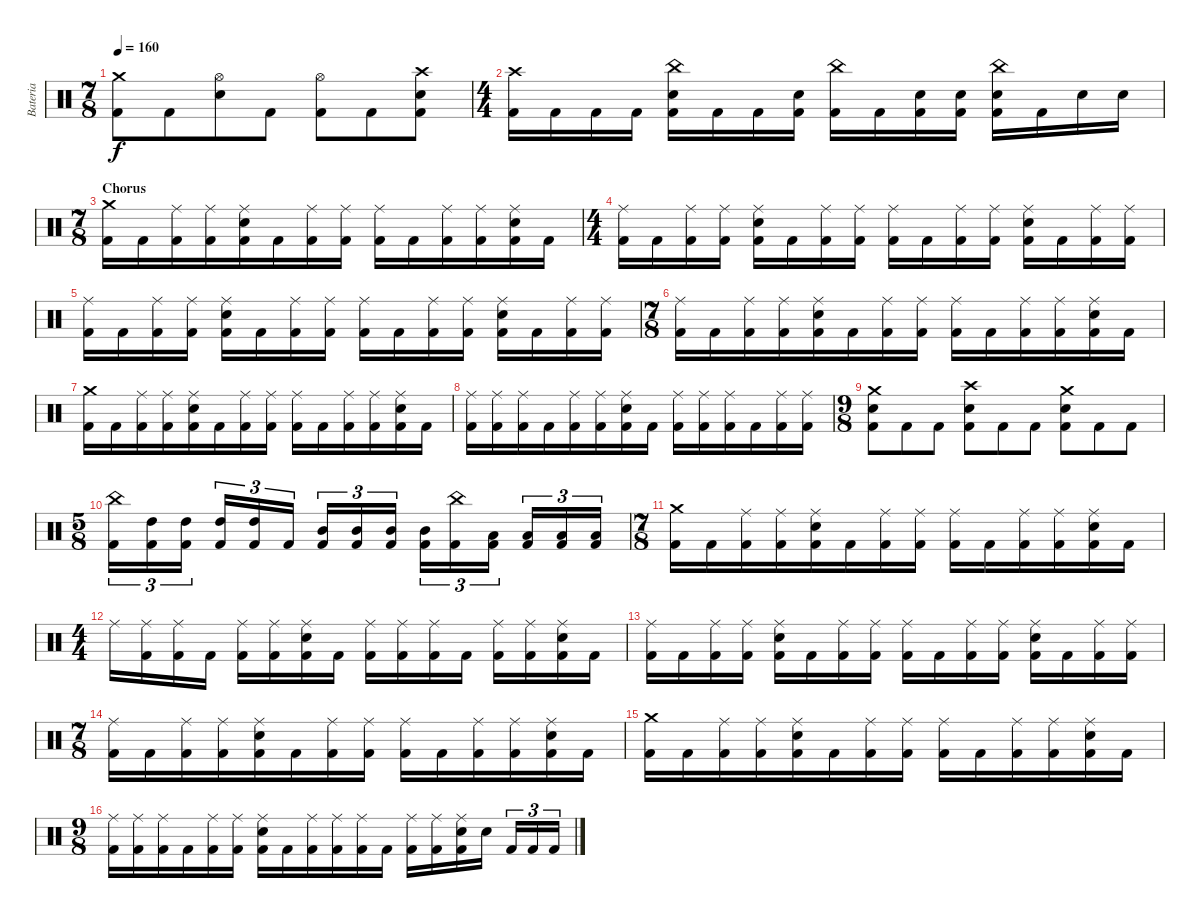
\track ("Bateria" "Bateria") {instrument percussion}
\staff {score}
\articulation defaults
\ts (7 8)
\tempo 160
\clef neutral
\ks c
("Crash medium (hit)" "Kick (hit) 2").8{dy f} "Kick (hit) 2".8 ("Hi-Hat (open)" "Electric Snare (hit)").8 "Kick (hit) 2".8 ("Hi-Hat (open)" "Kick (hit) 2").8 "Kick (hit) 2".8 ("Crash high (hit)" "Electric Snare (hit)" "Kick (hit) 2").8 |
\ts (4 4)
("Crash high (hit)" "Kick (hit) 2").16 "Kick (hit) 2".16 "Kick (hit) 2".16 "Kick (hit) 2".16 ("China (hit)" "Electric Snare (hit)" "Kick (hit) 2").16 "Kick (hit) 2".16 "Kick (hit) 2".16 ("Electric Snare (hit)" "Kick (hit) 2").16 ("China (hit)" "Kick (hit) 2").16 "Kick (hit) 2".16 ("Electric Snare (hit)" "Kick (hit) 2").16 ("Electric Snare (hit)" "Kick (hit) 2").16 ("China (hit)" "Electric Snare (hit)" "Kick (hit) 2").16 "Kick (hit) 2".16 "Electric Snare (hit)".16 "Electric Snare (hit)".16 |
\ts (7 8)
\section ("" "Chorus")
("Crash medium (hit)" "Kick (hit) 2").16 "Kick (hit) 2".16 ("Ride (middle)" "Kick (hit) 2").16 ("Ride (middle)" "Kick (hit) 2").16 ("Ride (middle)" "Electric Snare (hit)" "Kick (hit) 2").16 "Kick (hit) 2".16 ("Ride (middle)" "Kick (hit) 2").16 ("Ride (middle)" "Kick (hit) 2").16 ("Ride (middle)" "Kick (hit) 2").16 "Kick (hit) 2".16 ("Ride (middle)" "Kick (hit) 2").16 ("Ride (middle)" "Kick (hit) 2").16 ("Ride (middle)" "Electric Snare (hit)" "Kick (hit) 2").16 "Kick (hit) 2".16 |
\ts (4 4)
("Ride (middle)" "Kick (hit) 2").16 "Kick (hit) 2".16 ("Ride (middle)" "Kick (hit) 2").16 ("Ride (middle)" "Kick (hit) 2").16 ("Ride (middle)" "Electric Snare (hit)" "Kick (hit) 2").16 "Kick (hit) 2".16 ("Ride (middle)" "Kick (hit) 2").16 ("Ride (middle)" "Kick (hit) 2").16 ("Ride (middle)" "Kick (hit) 2").16 "Kick (hit) 2".16 ("Ride (middle)" "Kick (hit) 2").16 ("Ride (middle)" "Kick (hit) 2").16 ("Ride (middle)" "Electric Snare (hit)" "Kick (hit) 2").16 "Kick (hit) 2".16 ("Ride (middle)" "Kick (hit) 2").16 ("Ride (middle)" "Kick (hit) 2").16 |
("Ride (middle)" "Kick (hit) 2").16 "Kick (hit) 2".16 ("Ride (middle)" "Kick (hit) 2").16 ("Ride (middle)" "Kick (hit) 2").16 ("Ride (middle)" "Electric Snare (hit)" "Kick (hit) 2").16 "Kick (hit) 2".16 ("Ride (middle)" "Kick (hit) 2").16 ("Ride (middle)" "Kick (hit) 2").16 ("Ride (middle)" "Kick (hit) 2").16 "Kick (hit) 2".16 ("Ride (middle)" "Kick (hit) 2").16 ("Ride (middle)" "Kick (hit) 2").16 ("Ride (middle)" "Electric Snare (hit)" "Kick (hit) 2").16 "Kick (hit) 2".16 ("Ride (middle)" "Kick (hit) 2").16 ("Ride (middle)" "Kick (hit) 2").16 |
\ts (7 8)
("Ride (middle)" "Kick (hit) 2").16 "Kick (hit) 2".16 ("Ride (middle)" "Kick (hit) 2").16 ("Ride (middle)" "Kick (hit) 2").16 ("Ride (middle)" "Electric Snare (hit)" "Kick (hit) 2").16 "Kick (hit) 2".16 ("Ride (middle)" "Kick (hit) 2").16 ("Ride (middle)" "Kick (hit) 2").16 ("Ride (middle)" "Kick (hit) 2").16 "Kick (hit) 2".16 ("Ride (middle)" "Kick (hit) 2").16 ("Ride (middle)" "Kick (hit) 2").16 ("Ride (middle)" "Electric Snare (hit)" "Kick (hit) 2").16 "Kick (hit) 2".16 |
("Crash medium (hit)" "Kick (hit) 2").16 "Kick (hit) 2".16 ("Ride (middle)" "Kick (hit) 2").16 ("Ride (middle)" "Kick (hit) 2").16 ("Ride (middle)" "Electric Snare (hit)" "Kick (hit) 2").16 "Kick (hit) 2".16 ("Ride (middle)" "Kick (hit) 2").16 ("Ride (middle)" "Kick (hit) 2").16 ("Ride (middle)" "Kick (hit) 2").16 "Kick (hit) 2".16 ("Ride (middle)" "Kick (hit) 2").16 ("Ride (middle)" "Kick (hit) 2").16 ("Ride (middle)" "Electric Snare (hit)" "Kick (hit) 2").16 "Kick (hit) 2".16 |
("Ride (middle)" "Kick (hit) 2").16 ("Ride (middle)" "Kick (hit) 2").16 ("Ride (middle)" "Kick (hit) 2").16 "Kick (hit) 2".16 ("Ride (middle)" "Kick (hit) 2").16 ("Ride (middle)" "Kick (hit) 2").16 ("Ride (middle)" "Electric Snare (hit)" "Kick (hit) 2").16 "Kick (hit) 2".16 ("Ride (middle)" "Kick (hit) 2").16 ("Ride (middle)" "Kick (hit) 2").16 ("Ride (middle)" "Kick (hit) 2").16 "Kick (hit) 2".16 ("Ride (middle)" "Kick (hit) 2").16 ("Ride (middle)" "Kick (hit) 2").16 |
\ts (9 8)
("Crash medium (hit)" "Electric Snare (hit)" "Kick (hit) 2").8 "Kick (hit) 2".8 "Kick (hit) 2".8 ("Crash high (hit)" "Electric Snare (hit)" "Kick (hit) 2").8 "Kick (hit) 2".8 "Kick (hit) 2".8 ("Crash medium (hit)" "Electric Snare (hit)" "Kick (hit) 2").8 "Kick (hit) 2".8 "Kick (hit) 2".8 |
\ts (5 8)
("China (hit)" "Kick (hit) 2").16{tu (3 2)} ("High Tom (hit)" "Kick (hit) 2").16{tu (3 2)} ("High Tom (hit)" "Kick (hit) 2").16{tu (3 2)} ("High Tom (hit)" "Kick (hit) 2").16{tu (3 2)} ("High Tom (hit)" "Kick (hit) 2").16{tu (3 2)} "Kick (hit) 2".16{tu (3 2)} ("Mid Tom (hit)" "Kick (hit) 2").16{tu (3 2)} ("Mid Tom (hit)" "Kick (hit) 2").16{tu (3 2)} ("Mid Tom (hit)" "Kick (hit) 2").16{tu (3 2)} ("Mid Tom (hit)" "Kick (hit) 2").16{tu (3 2)} ("China (hit)" "Kick (hit) 2").16{tu (3 2)} ("Low Tom (hit)" "Kick (hit) 2").16{tu (3 2)} ("Low Tom (hit)" "Kick (hit) 2").16{tu (3 2)} ("Low Tom (hit)" "Kick (hit) 2").16{tu (3 2)} ("Low Tom (hit)" "Kick (hit) 2").16{tu (3 2)} |
\ts (7 8)
("Crash medium (hit)" "Kick (hit) 2").16 "Kick (hit) 2".16 ("Ride (middle)" "Kick (hit) 2").16 ("Ride (middle)" "Kick (hit) 2").16 ("Ride (middle)" "Electric Snare (hit)" "Kick (hit) 2").16 "Kick (hit) 2".16 ("Ride (middle)" "Kick (hit) 2").16 ("Ride (middle)" "Kick (hit) 2").16 ("Ride (middle)" "Kick (hit) 2").16 "Kick (hit) 2".16 ("Ride (middle)" "Kick (hit) 2").16 ("Ride (middle)" "Kick (hit) 2").16 ("Ride (middle)" "Electric Snare (hit)" "Kick (hit) 2").16 "Kick (hit) 2".16 |
\ts (4 4)
"Ride (middle)".16 ("Ride (middle)" "Kick (hit) 2").16 ("Ride (middle)" "Kick (hit) 2").16 "Kick (hit) 2".16 ("Ride (middle)" "Kick (hit) 2").16 ("Ride (middle)" "Kick (hit) 2").16 ("Ride (middle)" "Electric Snare (hit)" "Kick (hit) 2").16 "Kick (hit) 2".16 ("Ride (middle)" "Kick (hit) 2").16 ("Ride (middle)" "Kick (hit) 2").16 ("Ride (middle)" "Kick (hit) 2").16 "Kick (hit) 2".16 ("Ride (middle)" "Kick (hit) 2").16 ("Ride (middle)" "Kick (hit) 2").16 ("Ride (middle)" "Electric Snare (hit)" "Kick (hit) 2").16 "Kick (hit) 2".16 |
("Ride (middle)" "Kick (hit) 2").16 "Kick (hit) 2".16 ("Ride (middle)" "Kick (hit) 2").16 ("Ride (middle)" "Kick (hit) 2").16 ("Ride (middle)" "Electric Snare (hit)" "Kick (hit) 2").16 "Kick (hit) 2".16 ("Ride (middle)" "Kick (hit) 2").16 ("Ride (middle)" "Kick (hit) 2").16 ("Ride (middle)" "Kick (hit) 2").16 "Kick (hit) 2".16 ("Ride (middle)" "Kick (hit) 2").16 ("Ride (middle)" "Kick (hit) 2").16 ("Ride (middle)" "Electric Snare (hit)" "Kick (hit) 2").16 "Kick (hit) 2".16 ("Ride (middle)" "Kick (hit) 2").16 ("Ride (middle)" "Kick (hit) 2").16 |
\ts (7 8)
("Ride (middle)" "Kick (hit) 2").16 "Kick (hit) 2".16 ("Ride (middle)" "Kick (hit) 2").16 ("Ride (middle)" "Kick (hit) 2").16 ("Ride (middle)" "Electric Snare (hit)" "Kick (hit) 2").16 "Kick (hit) 2".16 ("Ride (middle)" "Kick (hit) 2").16 ("Ride (middle)" "Kick (hit) 2").16 ("Ride (middle)" "Kick (hit) 2").16 "Kick (hit) 2".16 ("Ride (middle)" "Kick (hit) 2").16 ("Ride (middle)" "Kick (hit) 2").16 ("Ride (middle)" "Electric Snare (hit)" "Kick (hit) 2").16 "Kick (hit) 2".16 |
("Crash medium (hit)" "Kick (hit) 2").16 "Kick (hit) 2".16 ("Ride (middle)" "Kick (hit) 2").16 ("Ride (middle)" "Kick (hit) 2").16 ("Ride (middle)" "Electric Snare (hit)" "Kick (hit) 2").16 "Kick (hit) 2".16 ("Ride (middle)" "Kick (hit) 2").16 ("Ride (middle)" "Kick (hit) 2").16 ("Ride (middle)" "Kick (hit) 2").16 "Kick (hit) 2".16 ("Ride (middle)" "Kick (hit) 2").16 ("Ride (middle)" "Kick (hit) 2").16 ("Ride (middle)" "Electric Snare (hit)" "Kick (hit) 2").16 "Kick (hit) 2".16 |
\ts (9 8)
("Ride (middle)" "Kick (hit) 2").16 ("Ride (middle)" "Kick (hit) 2").16 ("Ride (middle)" "Kick (hit) 2").16 "Kick (hit) 2".16 ("Ride (middle)" "Kick (hit) 2").16 ("Ride (middle)" "Kick (hit) 2").16 ("Ride (middle)" "Electric Snare (hit)" "Kick (hit) 2").16 "Kick (hit) 2".16 ("Ride (middle)" "Kick (hit) 2").16 ("Ride (middle)" "Kick (hit) 2").16 ("Ride (middle)" "Kick (hit) 2").16 "Kick (hit) 2".16 ("Ride (middle)" "Kick (hit) 2").16 ("Ride (middle)" "Kick (hit) 2").16 ("Ride (middle)" "Electric Snare (hit)" "Kick (hit) 2").16 "Electric Snare (hit)".16 "Kick (hit) 2".16{tu (3 2)} "Kick (hit) 2".16{tu (3 2)} "Kick (hit) 2".16{tu (3 2)}
